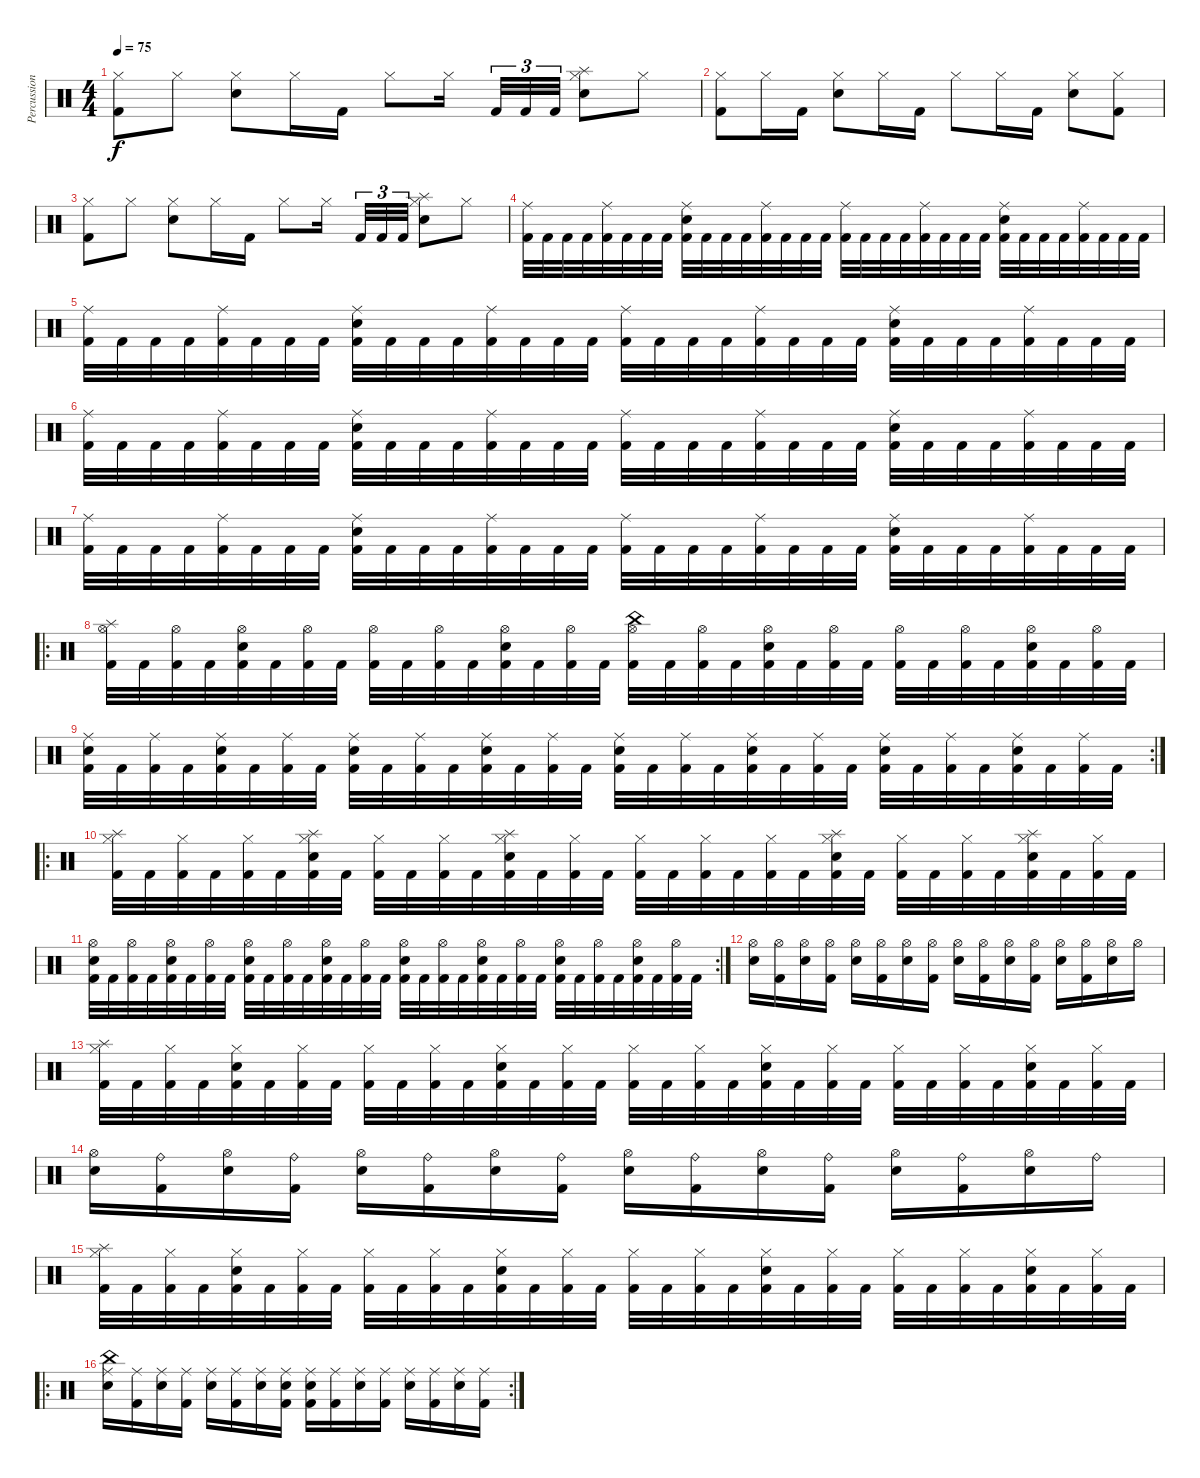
\track ("Percussion" "Percussion") {instrument percussion}
\staff {score}
\articulation defaults
\ts (4 4)
\tempo 75
\clef neutral
\ks c
("Kick (hit) 2" "Hi-Hat (closed)").8{dy f} "Hi-Hat (closed)".8 ("Snare (hit) 2" "Hi-Hat (closed)").8 "Hi-Hat (closed)".16 "Kick (hit) 2".16 "Hi-Hat (closed)".8 "Hi-Hat (closed)".16 "Kick (hit) 2".32{tu (3 2)} "Kick (hit) 2".32{tu (3 2)} "Kick (hit) 2".32{tu (3 2)} ("Snare (hit) 2" "Hi-Hat (closed)" "Splash (hit)").8 "Hi-Hat (closed)".8 |
("Kick (hit) 2" "Hi-Hat (closed)").8 "Hi-Hat (closed)".16 "Kick (hit) 2".16 ("Snare (hit) 2" "Hi-Hat (closed)").8 "Hi-Hat (closed)".16 "Kick (hit) 2".16 "Hi-Hat (closed)".8 "Hi-Hat (closed)".16 "Kick (hit) 2".16 ("Snare (hit) 2" "Hi-Hat (closed)").8 ("Kick (hit) 2" "Hi-Hat (closed)").8 |
("Kick (hit) 2" "Hi-Hat (closed)").8 "Hi-Hat (closed)".8 ("Snare (hit) 2" "Hi-Hat (closed)").8 "Hi-Hat (closed)".16 "Kick (hit) 2".16 "Hi-Hat (closed)".8 "Hi-Hat (closed)".16 "Kick (hit) 2".32{tu (3 2)} "Kick (hit) 2".32{tu (3 2)} "Kick (hit) 2".32{tu (3 2)} ("Snare (hit) 2" "Hi-Hat (closed)" "Splash (hit)").8 "Hi-Hat (closed)".8 |
("Kick (hit) 2" "Ride (middle)").32 "Kick (hit) 2".32 "Kick (hit) 2".32 "Kick (hit) 2".32 ("Kick (hit) 2" "Ride (middle)").32 "Kick (hit) 2".32 "Kick (hit) 2".32 "Kick (hit) 2".32 ("Kick (hit) 2" "Snare (hit) 2" "Ride (middle)").32 "Kick (hit) 2".32 "Kick (hit) 2".32 "Kick (hit) 2".32 ("Kick (hit) 2" "Ride (middle)").32 "Kick (hit) 2".32 "Kick (hit) 2".32 "Kick (hit) 2".32 ("Kick (hit) 2" "Ride (middle)").32 "Kick (hit) 2".32 "Kick (hit) 2".32 "Kick (hit) 2".32 ("Kick (hit) 2" "Ride (middle)").32 "Kick (hit) 2".32 "Kick (hit) 2".32 "Kick (hit) 2".32 ("Kick (hit) 2" "Snare (hit) 2" "Ride (middle)").32 "Kick (hit) 2".32 "Kick (hit) 2".32 "Kick (hit) 2".32 ("Kick (hit) 2" "Ride (middle)").32 "Kick (hit) 2".32 "Kick (hit) 2".32 "Kick (hit) 2".32 |
("Kick (hit) 2" "Ride (middle)").32 "Kick (hit) 2".32 "Kick (hit) 2".32 "Kick (hit) 2".32 ("Kick (hit) 2" "Ride (middle)").32 "Kick (hit) 2".32 "Kick (hit) 2".32 "Kick (hit) 2".32 ("Kick (hit) 2" "Snare (hit) 2" "Ride (middle)").32 "Kick (hit) 2".32 "Kick (hit) 2".32 "Kick (hit) 2".32 ("Kick (hit) 2" "Ride (middle)").32 "Kick (hit) 2".32 "Kick (hit) 2".32 "Kick (hit) 2".32 ("Kick (hit) 2" "Ride (middle)").32 "Kick (hit) 2".32 "Kick (hit) 2".32 "Kick (hit) 2".32 ("Kick (hit) 2" "Ride (middle)").32 "Kick (hit) 2".32 "Kick (hit) 2".32 "Kick (hit) 2".32 ("Kick (hit) 2" "Snare (hit) 2" "Ride (middle)").32 "Kick (hit) 2".32 "Kick (hit) 2".32 "Kick (hit) 2".32 ("Kick (hit) 2" "Ride (middle)").32 "Kick (hit) 2".32 "Kick (hit) 2".32 "Kick (hit) 2".32 |
("Kick (hit) 2" "Ride (middle)").32 "Kick (hit) 2".32 "Kick (hit) 2".32 "Kick (hit) 2".32 ("Kick (hit) 2" "Ride (middle)").32 "Kick (hit) 2".32 "Kick (hit) 2".32 "Kick (hit) 2".32 ("Kick (hit) 2" "Snare (hit) 2" "Ride (middle)").32 "Kick (hit) 2".32 "Kick (hit) 2".32 "Kick (hit) 2".32 ("Kick (hit) 2" "Ride (middle)").32 "Kick (hit) 2".32 "Kick (hit) 2".32 "Kick (hit) 2".32 ("Kick (hit) 2" "Ride (middle)").32 "Kick (hit) 2".32 "Kick (hit) 2".32 "Kick (hit) 2".32 ("Kick (hit) 2" "Ride (middle)").32 "Kick (hit) 2".32 "Kick (hit) 2".32 "Kick (hit) 2".32 ("Kick (hit) 2" "Snare (hit) 2" "Ride (middle)").32 "Kick (hit) 2".32 "Kick (hit) 2".32 "Kick (hit) 2".32 ("Kick (hit) 2" "Ride (middle)").32 "Kick (hit) 2".32 "Kick (hit) 2".32 "Kick (hit) 2".32 |
("Kick (hit) 2" "Ride (middle)").32 "Kick (hit) 2".32 "Kick (hit) 2".32 "Kick (hit) 2".32 ("Kick (hit) 2" "Ride (middle)").32 "Kick (hit) 2".32 "Kick (hit) 2".32 "Kick (hit) 2".32 ("Kick (hit) 2" "Snare (hit) 2" "Ride (middle)").32 "Kick (hit) 2".32 "Kick (hit) 2".32 "Kick (hit) 2".32 ("Kick (hit) 2" "Ride (middle)").32 "Kick (hit) 2".32 "Kick (hit) 2".32 "Kick (hit) 2".32 ("Kick (hit) 2" "Ride (middle)").32 "Kick (hit) 2".32 "Kick (hit) 2".32 "Kick (hit) 2".32 ("Kick (hit) 2" "Ride (middle)").32 "Kick (hit) 2".32 "Kick (hit) 2".32 "Kick (hit) 2".32 ("Kick (hit) 2" "Snare (hit) 2" "Ride (middle)").32 "Kick (hit) 2".32 "Kick (hit) 2".32 "Kick (hit) 2".32 ("Kick (hit) 2" "Ride (middle)").32 "Kick (hit) 2".32 "Kick (hit) 2".32 "Kick (hit) 2".32 |
\ro
("Kick (hit) 2" "Hi-Hat (open)" "Splash (hit)").32 "Kick (hit) 2".32 ("Kick (hit) 2" "Hi-Hat (open)").32 "Kick (hit) 2".32 ("Kick (hit) 2" "Snare (hit) 2" "Hi-Hat (open)").32 "Kick (hit) 2".32 ("Kick (hit) 2" "Hi-Hat (open)").32 "Kick (hit) 2".32 ("Kick (hit) 2" "Hi-Hat (open)").32 "Kick (hit) 2".32 ("Kick (hit) 2" "Hi-Hat (open)").32 "Kick (hit) 2".32 ("Kick (hit) 2" "Snare (hit) 2" "Hi-Hat (open)").32 "Kick (hit) 2".32 ("Kick (hit) 2" "Hi-Hat (open)").32 "Kick (hit) 2".32 ("Kick (hit) 2" "Hi-Hat (open)" "China (hit)").32 "Kick (hit) 2".32 ("Kick (hit) 2" "Hi-Hat (open)").32 "Kick (hit) 2".32 ("Kick (hit) 2" "Snare (hit) 2" "Hi-Hat (open)").32 "Kick (hit) 2".32 ("Kick (hit) 2" "Hi-Hat (open)").32 "Kick (hit) 2".32 ("Kick (hit) 2" "Hi-Hat (open)").32 "Kick (hit) 2".32 ("Kick (hit) 2" "Hi-Hat (open)").32 "Kick (hit) 2".32 ("Kick (hit) 2" "Snare (hit) 2" "Hi-Hat (open)").32 "Kick (hit) 2".32 ("Kick (hit) 2" "Hi-Hat (open)").32 "Kick (hit) 2".32 |
\rc 2
("Kick (hit) 2" "Snare (hit) 2" "Ride (middle)").32 "Kick (hit) 2".32 ("Kick (hit) 2" "Ride (middle)").32 "Kick (hit) 2".32 ("Kick (hit) 2" "Snare (hit) 2" "Ride (middle)").32 "Kick (hit) 2".32 ("Kick (hit) 2" "Ride (middle)").32 "Kick (hit) 2".32 ("Kick (hit) 2" "Snare (hit) 2" "Ride (middle)").32 "Kick (hit) 2".32 ("Kick (hit) 2" "Ride (middle)").32 "Kick (hit) 2".32 ("Kick (hit) 2" "Snare (hit) 2" "Ride (middle)").32 "Kick (hit) 2".32 ("Kick (hit) 2" "Ride (middle)").32 "Kick (hit) 2".32 ("Kick (hit) 2" "Snare (hit) 2" "Ride (middle)").32 "Kick (hit) 2".32 ("Kick (hit) 2" "Ride (middle)").32 "Kick (hit) 2".32 ("Kick (hit) 2" "Snare (hit) 2" "Ride (middle)").32 "Kick (hit) 2".32 ("Kick (hit) 2" "Ride (middle)").32 "Kick (hit) 2".32 ("Kick (hit) 2" "Snare (hit) 2" "Ride (middle)").32 "Kick (hit) 2".32 ("Kick (hit) 2" "Ride (middle)").32 "Kick (hit) 2".32 ("Kick (hit) 2" "Snare (hit) 2" "Ride (middle)").32 "Kick (hit) 2".32 ("Kick (hit) 2" "Ride (middle)").32 "Kick (hit) 2".32 |
\ro
("Kick (hit) 2" "Hi-Hat (closed)" "Splash (hit)").32 "Kick (hit) 2".32 ("Kick (hit) 2" "Hi-Hat (closed)").32 "Kick (hit) 2".32 ("Kick (hit) 2" "Hi-Hat (closed)").32 "Kick (hit) 2".32 ("Kick (hit) 2" "Snare (hit) 2" "Hi-Hat (closed)" "Splash (hit)").32 "Kick (hit) 2".32 ("Kick (hit) 2" "Hi-Hat (closed)").32 "Kick (hit) 2".32 ("Kick (hit) 2" "Hi-Hat (closed)").32 "Kick (hit) 2".32 ("Kick (hit) 2" "Snare (hit) 2" "Hi-Hat (closed)" "Splash (hit)").32 "Kick (hit) 2".32 ("Kick (hit) 2" "Hi-Hat (closed)").32 "Kick (hit) 2".32 ("Kick (hit) 2" "Hi-Hat (closed)").32 "Kick (hit) 2".32 ("Kick (hit) 2" "Hi-Hat (closed)").32 "Kick (hit) 2".32 ("Kick (hit) 2" "Hi-Hat (closed)").32 "Kick (hit) 2".32 ("Kick (hit) 2" "Snare (hit) 2" "Hi-Hat (closed)" "Splash (hit)").32 "Kick (hit) 2".32 ("Kick (hit) 2" "Hi-Hat (closed)").32 "Kick (hit) 2".32 ("Kick (hit) 2" "Hi-Hat (closed)").32 "Kick (hit) 2".32 ("Kick (hit) 2" "Snare (hit) 2" "Hi-Hat (closed)" "Splash (hit)").32 "Kick (hit) 2".32 ("Kick (hit) 2" "Hi-Hat (closed)").32 "Kick (hit) 2".32 |
\rc 2
("Kick (hit) 2" "Snare (hit) 2" "Hi-Hat (open)").32 "Kick (hit) 2".32 ("Kick (hit) 2" "Hi-Hat (open)").32 "Kick (hit) 2".32 ("Kick (hit) 2" "Snare (hit) 2" "Hi-Hat (open)").32 "Kick (hit) 2".32 ("Kick (hit) 2" "Hi-Hat (open)").32 "Kick (hit) 2".32 ("Kick (hit) 2" "Snare (hit) 2" "Hi-Hat (open)").32 "Kick (hit) 2".32 ("Kick (hit) 2" "Hi-Hat (open)").32 "Kick (hit) 2".32 ("Kick (hit) 2" "Snare (hit) 2" "Hi-Hat (open)").32 "Kick (hit) 2".32 ("Kick (hit) 2" "Hi-Hat (open)").32 "Kick (hit) 2".32 ("Kick (hit) 2" "Snare (hit) 2" "Hi-Hat (open)").32 "Kick (hit) 2".32 ("Kick (hit) 2" "Hi-Hat (open)").32 "Kick (hit) 2".32 ("Kick (hit) 2" "Snare (hit) 2" "Hi-Hat (open)").32 "Kick (hit) 2".32 ("Kick (hit) 2" "Hi-Hat (open)").32 "Kick (hit) 2".32 ("Kick (hit) 2" "Snare (hit) 2" "Hi-Hat (open)").32 "Kick (hit) 2".32 ("Kick (hit) 2" "Hi-Hat (open)").32 "Kick (hit) 2".32 ("Kick (hit) 2" "Snare (hit) 2" "Hi-Hat (open)").32 "Kick (hit) 2".32 ("Kick (hit) 2" "Hi-Hat (open)").32 "Kick (hit) 2".32 |
("Snare (hit) 2" "Hi-Hat (open)").16 ("Kick (hit) 2" "Hi-Hat (open)").16 ("Snare (hit) 2" "Hi-Hat (open)").16 ("Kick (hit) 2" "Hi-Hat (open)").16 ("Snare (hit) 2" "Hi-Hat (open)").16 ("Kick (hit) 2" "Hi-Hat (open)").16 ("Snare (hit) 2" "Hi-Hat (open)").16 ("Kick (hit) 2" "Hi-Hat (open)").16 ("Snare (hit) 2" "Hi-Hat (open)").16 ("Kick (hit) 2" "Hi-Hat (open)").16 ("Snare (hit) 2" "Hi-Hat (open)").16 ("Kick (hit) 2" "Hi-Hat (open)").16 ("Snare (hit) 2" "Hi-Hat (open)").16 ("Kick (hit) 2" "Hi-Hat (open)").16 ("Snare (hit) 2" "Hi-Hat (open)").16 "Hi-Hat (open)".16 |
("Kick (hit) 2" "Hi-Hat (closed)" "Splash (hit)").32 "Kick (hit) 2".32 ("Kick (hit) 2" "Hi-Hat (closed)").32 "Kick (hit) 2".32 ("Kick (hit) 2" "Snare (hit) 2" "Hi-Hat (closed)").32 "Kick (hit) 2".32 ("Kick (hit) 2" "Hi-Hat (closed)").32 "Kick (hit) 2".32 ("Kick (hit) 2" "Hi-Hat (closed)").32 "Kick (hit) 2".32 ("Kick (hit) 2" "Hi-Hat (closed)").32 "Kick (hit) 2".32 ("Kick (hit) 2" "Snare (hit) 2" "Hi-Hat (closed)").32 "Kick (hit) 2".32 ("Kick (hit) 2" "Hi-Hat (closed)").32 "Kick (hit) 2".32 ("Kick (hit) 2" "Hi-Hat (closed)").32 "Kick (hit) 2".32 ("Kick (hit) 2" "Hi-Hat (closed)").32 "Kick (hit) 2".32 ("Kick (hit) 2" "Snare (hit) 2" "Hi-Hat (closed)").32 "Kick (hit) 2".32 ("Kick (hit) 2" "Hi-Hat (closed)").32 "Kick (hit) 2".32 ("Kick (hit) 2" "Hi-Hat (closed)").32 "Kick (hit) 2".32 ("Kick (hit) 2" "Hi-Hat (closed)").32 "Kick (hit) 2".32 ("Kick (hit) 2" "Snare (hit) 2" "Hi-Hat (closed)").32 "Kick (hit) 2".32 ("Kick (hit) 2" "Hi-Hat (closed)").32 "Kick (hit) 2".32 |
("Snare (hit) 2" "Hi-Hat (open)").16 ("Kick (hit) 2" "Ride (bell)").16 ("Snare (hit) 2" "Hi-Hat (open)").16 ("Kick (hit) 2" "Ride (bell)").16 ("Snare (hit) 2" "Hi-Hat (open)").16 ("Kick (hit) 2" "Ride (bell)").16 ("Snare (hit) 2" "Hi-Hat (open)").16 ("Kick (hit) 2" "Ride (bell)").16 ("Snare (hit) 2" "Hi-Hat (open)").16 ("Kick (hit) 2" "Ride (bell)").16 ("Snare (hit) 2" "Hi-Hat (open)").16 ("Kick (hit) 2" "Ride (bell)").16 ("Snare (hit) 2" "Hi-Hat (open)").16 ("Kick (hit) 2" "Ride (bell)").16 ("Snare (hit) 2" "Hi-Hat (open)").16 "Ride (bell)".16 |
("Kick (hit) 2" "Hi-Hat (closed)" "Splash (hit)").32 "Kick (hit) 2".32 ("Kick (hit) 2" "Hi-Hat (closed)").32 "Kick (hit) 2".32 ("Kick (hit) 2" "Snare (hit) 2" "Hi-Hat (closed)").32 "Kick (hit) 2".32 ("Kick (hit) 2" "Hi-Hat (closed)").32 "Kick (hit) 2".32 ("Kick (hit) 2" "Hi-Hat (closed)").32 "Kick (hit) 2".32 ("Kick (hit) 2" "Hi-Hat (closed)").32 "Kick (hit) 2".32 ("Kick (hit) 2" "Snare (hit) 2" "Hi-Hat (closed)").32 "Kick (hit) 2".32 ("Kick (hit) 2" "Hi-Hat (closed)").32 "Kick (hit) 2".32 ("Kick (hit) 2" "Hi-Hat (closed)").32 "Kick (hit) 2".32 ("Kick (hit) 2" "Hi-Hat (closed)").32 "Kick (hit) 2".32 ("Kick (hit) 2" "Snare (hit) 2" "Hi-Hat (closed)").32 "Kick (hit) 2".32 ("Kick (hit) 2" "Hi-Hat (closed)").32 "Kick (hit) 2".32 ("Kick (hit) 2" "Hi-Hat (closed)").32 "Kick (hit) 2".32 ("Kick (hit) 2" "Hi-Hat (closed)").32 "Kick (hit) 2".32 ("Kick (hit) 2" "Snare (hit) 2" "Hi-Hat (closed)").32 "Kick (hit) 2".32 ("Kick (hit) 2" "Hi-Hat (closed)").32 "Kick (hit) 2".32 |
\ro
\rc 2
("Snare (hit) 2" "Ride (middle)" "China (hit)").16 ("Kick (hit) 2" "Ride (middle)").16 ("Snare (hit) 2" "Ride (middle)").16 ("Kick (hit) 2" "Ride (middle)").16 ("Snare (hit) 2" "Ride (middle)").16 ("Kick (hit) 2" "Ride (middle)").16 ("Snare (hit) 2" "Ride (middle)").16 ("Kick (hit) 2" "Snare (hit) 2" "Ride (middle)").16 ("Kick (hit) 2" "Snare (hit) 2" "Ride (middle)").16 ("Kick (hit) 2" "Ride (middle)").16 ("Snare (hit) 2" "Ride (middle)").16 ("Kick (hit) 2" "Ride (middle)").16 ("Snare (hit) 2" "Ride (middle)").16 ("Kick (hit) 2" "Ride (middle)").16 ("Snare (hit) 2" "Ride (middle)").16 ("Kick (hit) 2" "Ride (middle)").16
